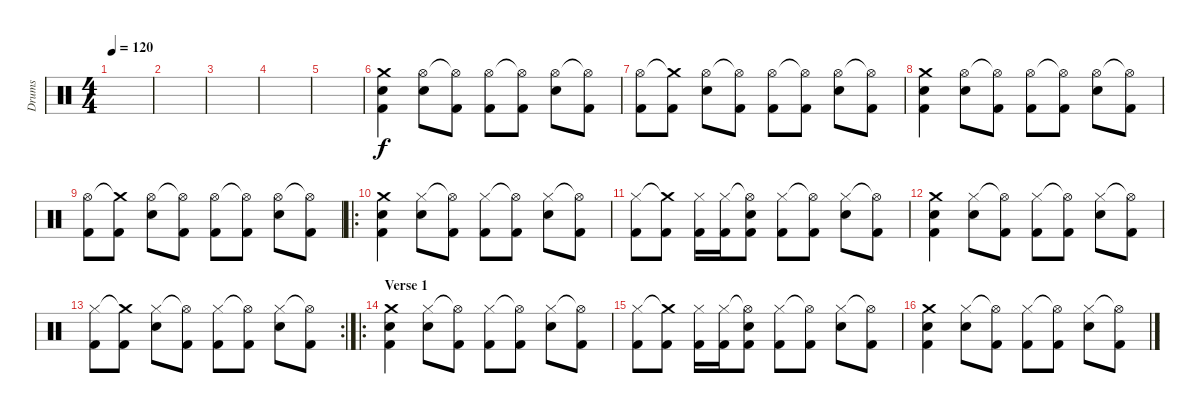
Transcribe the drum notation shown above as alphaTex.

\track ("Drums" "Drums") {instrument percussion}
\staff {score}
\articulation defaults
\ts (4 4)
\tempo 120
\clef neutral
\ks c
|
|
|
|
|
("Crash medium (hit)" "Snare (hit) 2" "Kick (hit) 2").4 ("Hi-Hat (open)" "Snare (hit) 2").8 ("Hi-Hat (open)"{t} "Kick (hit) 2").8 ("Hi-Hat (open)" "Kick (hit) 2").8 ("Hi-Hat (open)"{t} "Kick (hit) 2").8 ("Hi-Hat (open)" "Snare (hit) 2").8 ("Hi-Hat (open)"{t} "Kick (hit) 2").8 |
("Hi-Hat (open)" "Kick (hit) 2").8 ("Crash medium (hit)"{t} "Kick (hit) 2").8 ("Hi-Hat (open)" "Snare (hit) 2").8 ("Hi-Hat (open)"{t} "Kick (hit) 2").8 ("Hi-Hat (open)" "Kick (hit) 2").8 ("Hi-Hat (open)"{t} "Kick (hit) 2").8 ("Hi-Hat (open)" "Snare (hit) 2").8 ("Hi-Hat (open)"{t} "Kick (hit) 2").8 |
("Crash medium (hit)" "Snare (hit) 2" "Kick (hit) 2").4 ("Hi-Hat (open)" "Snare (hit) 2").8 ("Hi-Hat (open)"{t} "Kick (hit) 2").8 ("Hi-Hat (open)" "Kick (hit) 2").8 ("Hi-Hat (open)"{t} "Kick (hit) 2").8 ("Hi-Hat (open)" "Snare (hit) 2").8 ("Hi-Hat (open)"{t} "Kick (hit) 2").8 |
("Hi-Hat (open)" "Kick (hit) 2").8 ("Crash medium (hit)"{t} "Kick (hit) 2").8 ("Hi-Hat (open)" "Snare (hit) 2").8 ("Hi-Hat (open)"{t} "Kick (hit) 2").8 ("Hi-Hat (open)" "Kick (hit) 2").8 ("Hi-Hat (open)"{t} "Kick (hit) 2").8 ("Hi-Hat (open)" "Snare (hit) 2").8 ("Hi-Hat (open)"{t} "Kick (hit) 2").8 |
\ro
("Crash medium (hit)" "Snare (hit) 2" "Kick (hit) 2").4 ("Hi-Hat (closed)" "Snare (hit) 2").8 ("Hi-Hat (open)"{t} "Kick (hit) 2").8 ("Hi-Hat (closed)" "Kick (hit) 2").8 ("Hi-Hat (open)"{t} "Kick (hit) 2").8 ("Hi-Hat (closed)" "Snare (hit) 2").8 ("Hi-Hat (open)"{t} "Kick (hit) 2").8 |
("Hi-Hat (closed)" "Kick (hit) 2").8 ("Crash medium (hit)"{t} "Kick (hit) 2").8 ("Hi-Hat (closed)" "Kick (hit) 2").16 ("Hi-Hat (closed)" "Kick (hit) 2").16 ("Hi-Hat (open)"{t} "Snare (hit) 2" "Kick (hit) 2").8 ("Hi-Hat (closed)" "Kick (hit) 2").8 ("Hi-Hat (open)"{t} "Kick (hit) 2").8 ("Hi-Hat (closed)" "Snare (hit) 2").8 ("Hi-Hat (open)"{t} "Kick (hit) 2").8 |
("Crash medium (hit)" "Snare (hit) 2" "Kick (hit) 2").4 ("Hi-Hat (closed)" "Snare (hit) 2").8 ("Hi-Hat (open)"{t} "Kick (hit) 2").8 ("Hi-Hat (closed)" "Kick (hit) 2").8 ("Hi-Hat (open)"{t} "Kick (hit) 2").8 ("Hi-Hat (closed)" "Snare (hit) 2").8 ("Hi-Hat (open)"{t} "Kick (hit) 2").8 |
\rc 2
("Hi-Hat (closed)" "Kick (hit) 2").8 ("Crash medium (hit)"{t} "Kick (hit) 2").8 ("Hi-Hat (closed)" "Snare (hit) 2").8 ("Hi-Hat (open)"{t} "Kick (hit) 2").8 ("Hi-Hat (closed)" "Kick (hit) 2").8 ("Hi-Hat (open)"{t} "Kick (hit) 2").8 ("Hi-Hat (closed)" "Snare (hit) 2").8 ("Hi-Hat (open)"{t} "Kick (hit) 2").8 |
\ro
\section ("" "Verse 1")
("Crash medium (hit)" "Snare (hit) 2" "Kick (hit) 2").4 ("Hi-Hat (closed)" "Snare (hit) 2").8 ("Hi-Hat (open)"{t} "Kick (hit) 2").8 ("Hi-Hat (closed)" "Kick (hit) 2").8 ("Hi-Hat (open)"{t} "Kick (hit) 2").8 ("Hi-Hat (closed)" "Snare (hit) 2").8 ("Hi-Hat (open)"{t} "Kick (hit) 2").8 |
("Hi-Hat (closed)" "Kick (hit) 2").8 ("Crash medium (hit)"{t} "Kick (hit) 2").8 ("Hi-Hat (closed)" "Kick (hit) 2").16 ("Hi-Hat (closed)" "Kick (hit) 2").16 ("Hi-Hat (open)"{t} "Snare (hit) 2" "Kick (hit) 2").8 ("Hi-Hat (closed)" "Kick (hit) 2").8 ("Hi-Hat (open)"{t} "Kick (hit) 2").8 ("Hi-Hat (closed)" "Snare (hit) 2").8 ("Hi-Hat (open)"{t} "Kick (hit) 2").8 |
("Crash medium (hit)" "Snare (hit) 2" "Kick (hit) 2").4 ("Hi-Hat (closed)" "Snare (hit) 2").8 ("Hi-Hat (open)"{t} "Kick (hit) 2").8 ("Hi-Hat (closed)" "Kick (hit) 2").8 ("Hi-Hat (open)"{t} "Kick (hit) 2").8 ("Hi-Hat (closed)" "Snare (hit) 2").8 ("Hi-Hat (open)"{t} "Kick (hit) 2").8
